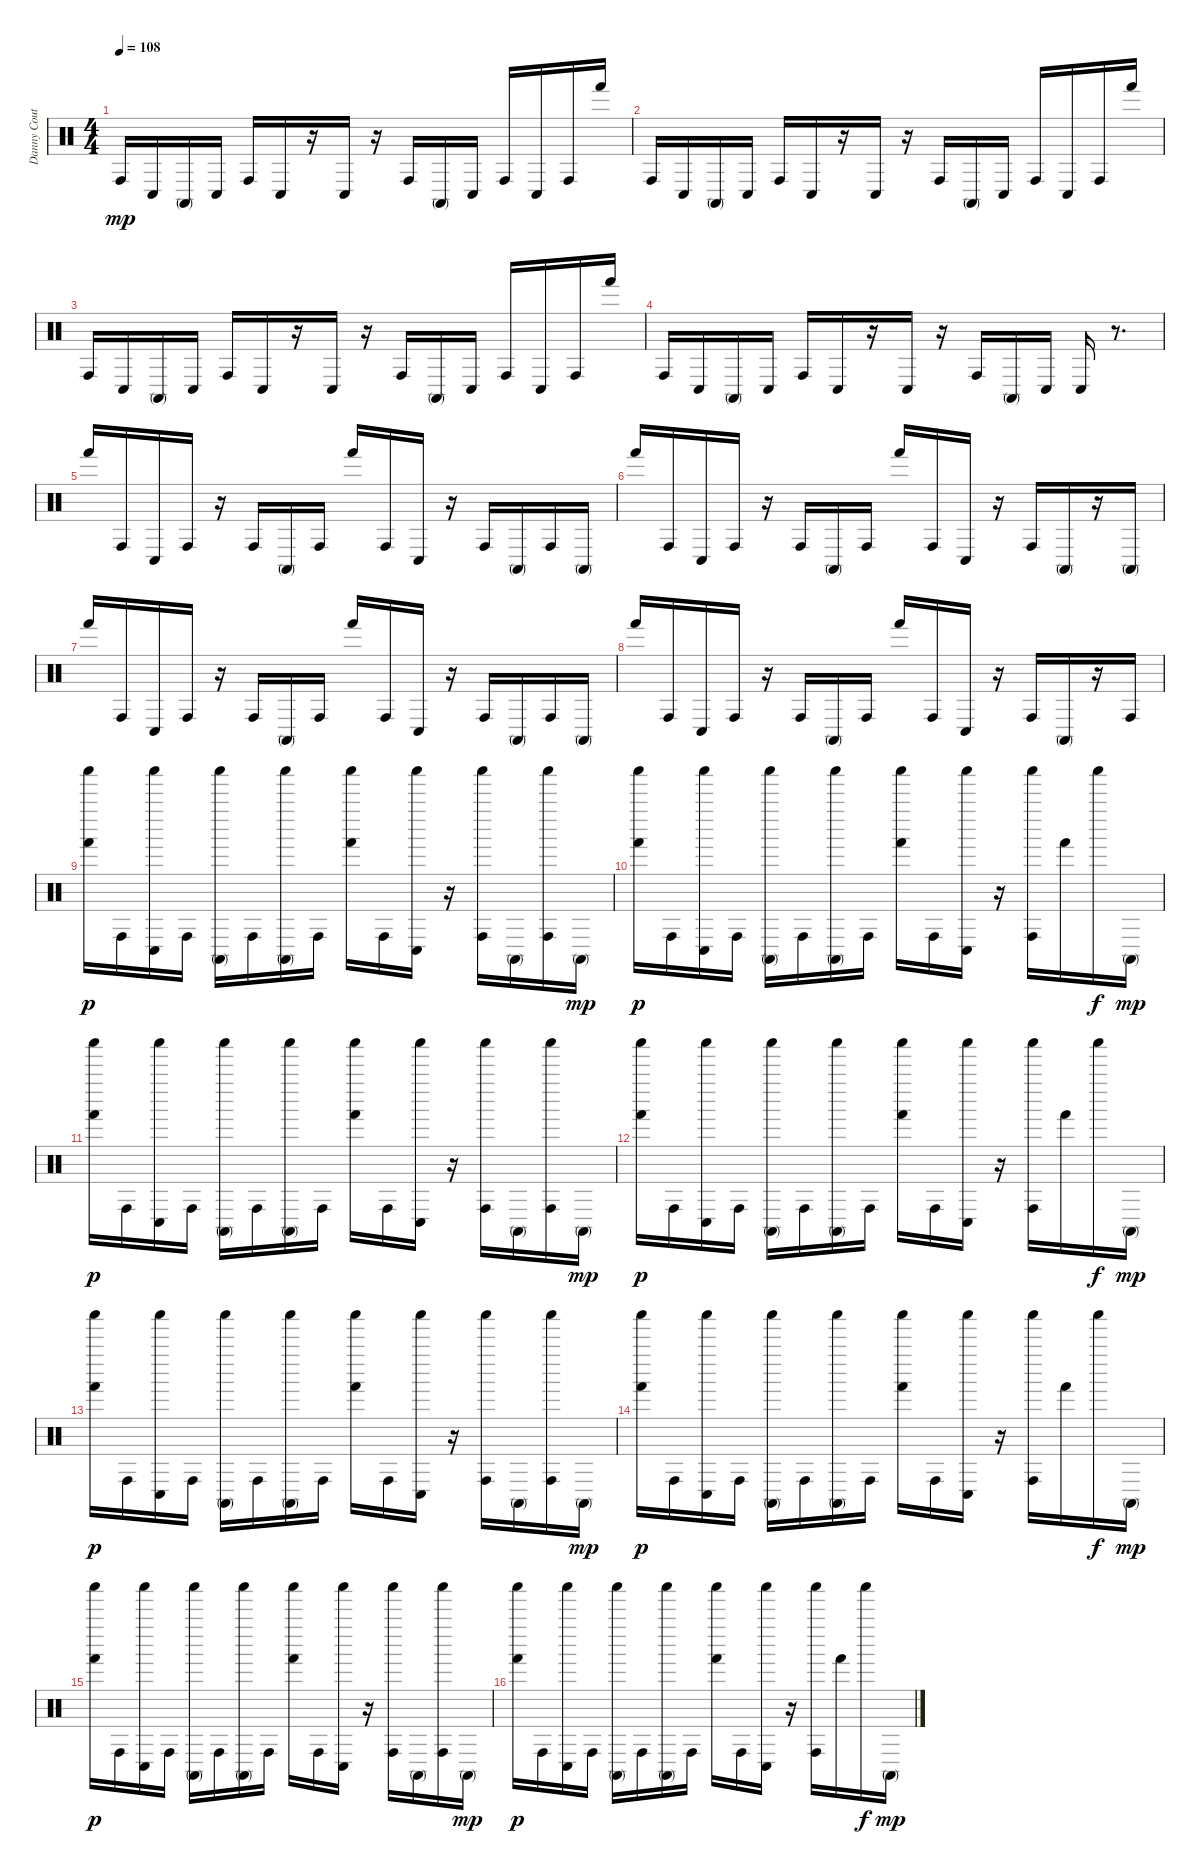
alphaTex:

\track ("Danny Couto [Percussion]" "Danny Cout") {instrument percussion}
\staff {score}
\articulation defaults
\ts (4 4)
\tempo 108
\clef neutral
\ks c "Conga high (hit)".16{dy mp} "Conga low (hit)".16 "Conga high (mute)".16 "Conga low (hit)".16 "Conga high (hit)".16 "Conga low (hit)".16
r.16 "Conga low (hit)".16 r.16 "Conga high (hit)".16 "Conga high (mute)".16 "Conga low (hit)".16 "Conga high (hit)".16 "Conga low (hit)".16 "Conga high (hit)".16 "Hand (hit)".16 |
"Conga high (hit)".16 "Conga low (hit)".16 "Conga high (mute)".16 "Conga low (hit)".16 "Conga high (hit)".16 "Conga low (hit)".16 r.16 "Conga low (hit)".16 r.16 "Conga high (hit)".16 "Conga high (mute)".16 "Conga low (hit)".16 "Conga high (hit)".16 "Conga low (hit)".16 "Conga high (hit)".16 "Hand (hit)".16 |
"Conga high (hit)".16 "Conga low (hit)".16 "Conga high (mute)".16 "Conga low (hit)".16 "Conga high (hit)".16 "Conga low (hit)".16 r.16 "Conga low (hit)".16 r.16 "Conga high (hit)".16 "Conga high (mute)".16 "Conga low (hit)".16 "Conga high (hit)".16 "Conga low (hit)".16 "Conga high (hit)".16 "Hand (hit)".16 |
"Conga high (hit)".16 "Conga low (hit)".16 "Conga high (mute)".16 "Conga low (hit)".16 "Conga high (hit)".16 "Conga low (hit)".16 r.16 "Conga low (hit)".16 r.16 "Conga high (hit)".16 "Conga high (mute)".16 "Conga low (hit)".16 "Conga low (hit)".16 r.8{d} |
"Hand (hit)".16 "Conga high (hit)".16 "Conga low (hit)".16 "Conga high (hit)".16 r.16 "Conga high (hit)".16 "Conga high (mute)".16 "Conga high (hit)".16 "Hand (hit)".16 "Conga high (hit)".16 "Conga low (hit)".16 r.16 "Conga high (hit)".16 "Conga high (mute)".16 "Conga high (hit)".16 "Conga high (mute)".16 |
"Hand (hit)".16 "Conga high (hit)".16 "Conga low (hit)".16 "Conga high (hit)".16 r.16 "Conga high (hit)".16 "Conga high (mute)".16 "Conga high (hit)".16 "Hand (hit)".16 "Conga high (hit)".16 "Conga low (hit)".16 r.16 "Conga high (hit)".16 "Conga high (mute)".16 r.16 "Conga high (mute)".16 |
"Hand (hit)".16 "Conga high (hit)".16 "Conga low (hit)".16 "Conga high (hit)".16 r.16 "Conga high (hit)".16 "Conga high (mute)".16 "Conga high (hit)".16 "Hand (hit)".16 "Conga high (hit)".16 "Conga low (hit)".16 r.16 "Conga high (hit)".16 "Conga high (mute)".16 "Conga high (hit)".16 "Conga high (mute)".16 |
"Hand (hit)".16 "Conga high (hit)".16 "Conga low (hit)".16 "Conga high (hit)".16 r.16 "Conga high (hit)".16 "Conga high (mute)".16 "Conga high (hit)".16 "Hand (hit)".16 "Conga high (hit)".16 "Conga low (hit)".16 r.16 "Conga high (hit)".16 "Conga high (mute)".16 r.16 "Conga high (hit)".16 |
("Shaker (hit)" "Hand (hit)").16{dy p} "Conga high (hit)".16 ("Shaker (hit)" "Conga low (hit)").16 "Conga high (hit)".16 ("Shaker (hit)" "Conga high (mute)").16 "Conga high (hit)".16 ("Shaker (hit)" "Conga high (mute)").16 "Conga high (hit)".16 ("Shaker (hit)" "Hand (hit)").16 "Conga high (hit)".16 ("Shaker (hit)" "Conga low (hit)").16 r.16 ("Shaker (hit)" "Conga high (hit)").16 "Conga high (mute)".16 ("Shaker (hit)" "Conga high (hit)").16 "Conga high (mute)".16{dy mp} |
("Shaker (hit)" "Hand (hit)").16{dy p} "Conga high (hit)".16 ("Shaker (hit)" "Conga low (hit)").16 "Conga high (hit)".16 ("Shaker (hit)" "Conga high (mute)").16 "Conga high (hit)".16 ("Shaker (hit)" "Conga high (mute)").16 "Conga high (hit)".16 ("Shaker (hit)" "Hand (hit)").16 "Conga high (hit)".16 ("Shaker (hit)" "Conga low (hit)").16 r.16 ("Shaker (hit)" "Conga high (hit)").16 "Hand (hit)".16 "Shaker (hit)".16{dy f} "Conga high (mute)".16{dy mp} |
("Shaker (hit)" "Hand (hit)").16{dy p} "Conga high (hit)".16 ("Shaker (hit)" "Conga low (hit)").16 "Conga high (hit)".16 ("Shaker (hit)" "Conga high (mute)").16 "Conga high (hit)".16 ("Shaker (hit)" "Conga high (mute)").16 "Conga high (hit)".16 ("Shaker (hit)" "Hand (hit)").16 "Conga high (hit)".16 ("Shaker (hit)" "Conga low (hit)").16 r.16 ("Shaker (hit)" "Conga high (hit)").16 "Conga high (mute)".16 ("Shaker (hit)" "Conga high (hit)").16 "Conga high (mute)".16{dy mp} |
("Shaker (hit)" "Hand (hit)").16{dy p} "Conga high (hit)".16 ("Shaker (hit)" "Conga low (hit)").16 "Conga high (hit)".16 ("Shaker (hit)" "Conga high (mute)").16 "Conga high (hit)".16 ("Shaker (hit)" "Conga high (mute)").16 "Conga high (hit)".16 ("Shaker (hit)" "Hand (hit)").16 "Conga high (hit)".16 ("Shaker (hit)" "Conga low (hit)").16 r.16 ("Shaker (hit)" "Conga high (hit)").16 "Hand (hit)".16 "Shaker (hit)".16{dy f} "Conga high (mute)".16{dy mp} |
("Shaker (hit)" "Hand (hit)").16{dy p} "Conga high (hit)".16 ("Shaker (hit)" "Conga low (hit)").16 "Conga high (hit)".16 ("Shaker (hit)" "Conga high (mute)").16 "Conga high (hit)".16 ("Shaker (hit)" "Conga high (mute)").16 "Conga high (hit)".16 ("Shaker (hit)" "Hand (hit)").16 "Conga high (hit)".16 ("Shaker (hit)" "Conga low (hit)").16 r.16 ("Shaker (hit)" "Conga high (hit)").16 "Conga high (mute)".16 ("Shaker (hit)" "Conga high (hit)").16 "Conga high (mute)".16{dy mp} |
("Shaker (hit)" "Hand (hit)").16{dy p} "Conga high (hit)".16 ("Shaker (hit)" "Conga low (hit)").16 "Conga high (hit)".16 ("Shaker (hit)" "Conga high (mute)").16 "Conga high (hit)".16 ("Shaker (hit)" "Conga high (mute)").16 "Conga high (hit)".16 ("Shaker (hit)" "Hand (hit)").16 "Conga high (hit)".16 ("Shaker (hit)" "Conga low (hit)").16 r.16 ("Shaker (hit)" "Conga high (hit)").16 "Hand (hit)".16 "Shaker (hit)".16{dy f} "Conga high (mute)".16{dy mp} |
("Shaker (hit)" "Hand (hit)").16{dy p} "Conga high (hit)".16 ("Shaker (hit)" "Conga low (hit)").16 "Conga high (hit)".16 ("Shaker (hit)" "Conga high (mute)").16 "Conga high (hit)".16 ("Shaker (hit)" "Conga high (mute)").16 "Conga high (hit)".16 ("Shaker (hit)" "Hand (hit)").16 "Conga high (hit)".16 ("Shaker (hit)" "Conga low (hit)").16 r.16 ("Shaker (hit)" "Conga high (hit)").16 "Conga high (mute)".16 ("Shaker (hit)" "Conga high (hit)").16 "Conga high (mute)".16{dy mp} |
("Shaker (hit)" "Hand (hit)").16{dy p} "Conga high (hit)".16 ("Shaker (hit)" "Conga low (hit)").16 "Conga high (hit)".16 ("Shaker (hit)" "Conga high (mute)").16 "Conga high (hit)".16 ("Shaker (hit)" "Conga high (mute)").16 "Conga high (hit)".16 ("Shaker (hit)" "Hand (hit)").16 "Conga high (hit)".16 ("Shaker (hit)" "Conga low (hit)").16 r.16 ("Shaker (hit)" "Conga high (hit)").16 "Hand (hit)".16 "Shaker (hit)".16{dy f} "Conga high (mute)".16{dy mp}
